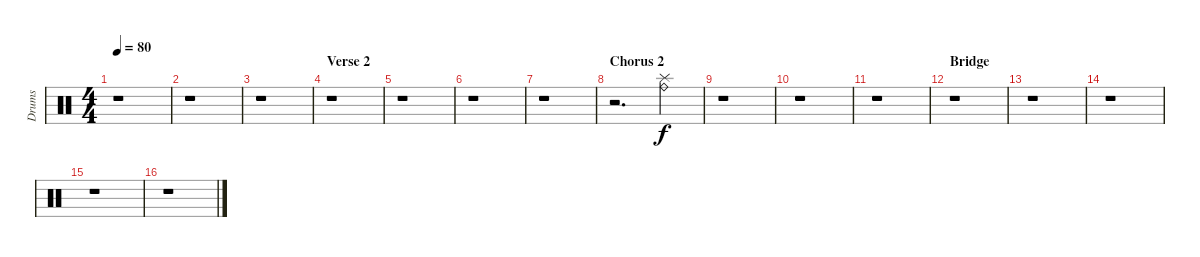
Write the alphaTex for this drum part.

\track ("Drums" "Drums") {instrument percussion}
\staff {score}
\articulation defaults
\ts (4 4)
\tempo 80
\clef neutral
\ks c
r.1{dy f} |
r.1 |
r.1 |
\section ("" "Verse 2")
r.1 |
r.1 |
r.1 |
r.1 |
\section ("" "Chorus 2")
r.2{d} ("Ride (bell)" "Splash (hit)").4 |
r.1 |
r.1 |
r.1 |
\section ("" "Bridge")
r.1 |
r.1 |
r.1 |
r.1 |
r.1
